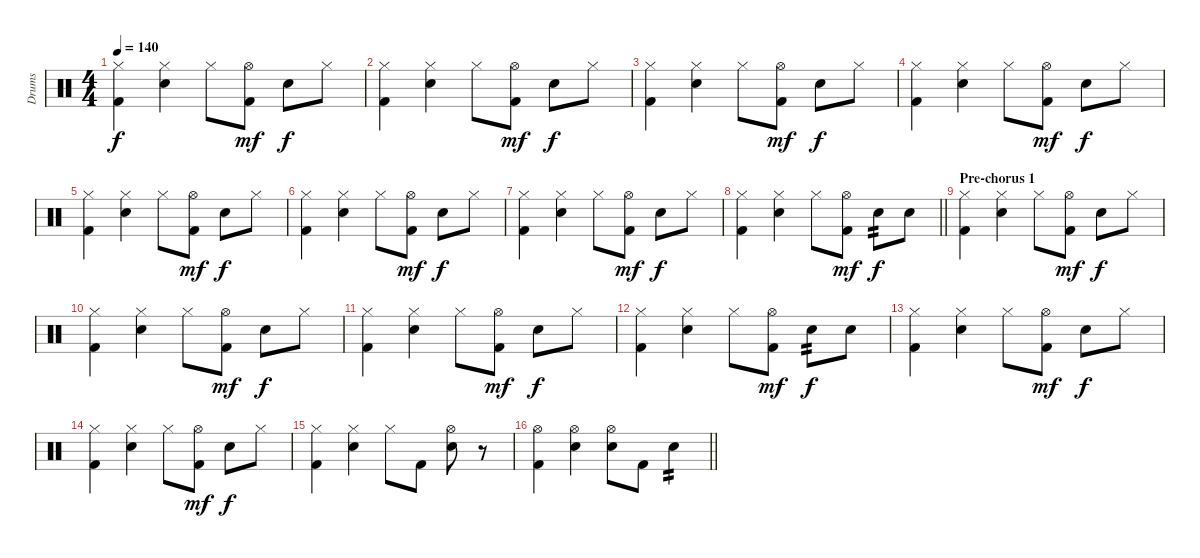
\track ("Drums" "Drums") {instrument percussion}
\staff {score}
\articulation defaults
\ts (4 4)
\tempo 140
\clef neutral
\ks c
("Hi-Hat (closed)" "Kick (hit) 2").4{dy f} ("Hi-Hat (closed)" "Snare (hit) 2").4 "Hi-Hat (closed)".8 ("Hi-Hat (open)" "Kick (hit) 2").8{dy mf} "Snare (hit) 2".8{dy f} "Hi-Hat (closed)".8 |
("Hi-Hat (closed)" "Kick (hit) 2").4 ("Hi-Hat (closed)" "Snare (hit) 2").4 "Hi-Hat (closed)".8 ("Hi-Hat (open)" "Kick (hit) 2").8{dy mf} "Snare (hit) 2".8{dy f} "Hi-Hat (closed)".8 |
("Hi-Hat (closed)" "Kick (hit) 2").4 ("Hi-Hat (closed)" "Snare (hit) 2").4 "Hi-Hat (closed)".8 ("Hi-Hat (open)" "Kick (hit) 2").8{dy mf} "Snare (hit) 2".8{dy f} "Hi-Hat (closed)".8 |
("Hi-Hat (closed)" "Kick (hit) 2").4 ("Hi-Hat (closed)" "Snare (hit) 2").4 "Hi-Hat (closed)".8 ("Hi-Hat (open)" "Kick (hit) 2").8{dy mf} "Snare (hit) 2".8{dy f} "Hi-Hat (closed)".8 |
("Hi-Hat (closed)" "Kick (hit) 2").4 ("Hi-Hat (closed)" "Snare (hit) 2").4 "Hi-Hat (closed)".8 ("Hi-Hat (open)" "Kick (hit) 2").8{dy mf} "Snare (hit) 2".8{dy f} "Hi-Hat (closed)".8 |
("Hi-Hat (closed)" "Kick (hit) 2").4 ("Hi-Hat (closed)" "Snare (hit) 2").4 "Hi-Hat (closed)".8 ("Hi-Hat (open)" "Kick (hit) 2").8{dy mf} "Snare (hit) 2".8{dy f} "Hi-Hat (closed)".8 |
("Hi-Hat (closed)" "Kick (hit) 2").4 ("Hi-Hat (closed)" "Snare (hit) 2").4 "Hi-Hat (closed)".8 ("Hi-Hat (open)" "Kick (hit) 2").8{dy mf} "Snare (hit) 2".8{dy f} "Hi-Hat (closed)".8 |
\barLineRight lightlight
("Hi-Hat (closed)" "Kick (hit) 2").4 ("Hi-Hat (closed)" "Snare (hit) 2").4 "Hi-Hat (closed)".8 ("Hi-Hat (open)" "Kick (hit) 2").8{dy mf} "Snare (hit) 2".8{tp 2 dy f} "Snare (hit) 2".8 |
\section ("" "Pre-chorus 1")
("Hi-Hat (closed)" "Kick (hit) 2").4 ("Hi-Hat (closed)" "Snare (hit) 2").4 "Hi-Hat (closed)".8 ("Hi-Hat (open)" "Kick (hit) 2").8{dy mf} "Snare (hit) 2".8{dy f} "Hi-Hat (closed)".8 |
("Hi-Hat (closed)" "Kick (hit) 2").4 ("Hi-Hat (closed)" "Snare (hit) 2").4 "Hi-Hat (closed)".8 ("Hi-Hat (open)" "Kick (hit) 2").8{dy mf} "Snare (hit) 2".8{dy f} "Hi-Hat (closed)".8 |
("Hi-Hat (closed)" "Kick (hit) 2").4 ("Hi-Hat (closed)" "Snare (hit) 2").4 "Hi-Hat (closed)".8 ("Hi-Hat (open)" "Kick (hit) 2").8{dy mf} "Snare (hit) 2".8{dy f} "Hi-Hat (closed)".8 |
("Hi-Hat (closed)" "Kick (hit) 2").4 ("Hi-Hat (closed)" "Snare (hit) 2").4 "Hi-Hat (closed)".8 ("Hi-Hat (open)" "Kick (hit) 2").8{dy mf} "Snare (hit) 2".8{tp 2 dy f} "Snare (hit) 2".8 |
("Hi-Hat (closed)" "Kick (hit) 2").4 ("Hi-Hat (closed)" "Snare (hit) 2").4 "Hi-Hat (closed)".8 ("Hi-Hat (open)" "Kick (hit) 2").8{dy mf} "Snare (hit) 2".8{dy f} "Hi-Hat (closed)".8 |
("Hi-Hat (closed)" "Kick (hit) 2").4 ("Hi-Hat (closed)" "Snare (hit) 2").4 "Hi-Hat (closed)".8 ("Hi-Hat (open)" "Kick (hit) 2").8{dy mf} "Snare (hit) 2".8{dy f} "Hi-Hat (closed)".8 |
("Hi-Hat (closed)" "Kick (hit) 2").4 ("Hi-Hat (closed)" "Snare (hit) 2").4 "Hi-Hat (closed)".8 "Kick (hit) 2".8 ("Hi-Hat (open)" "Snare (hit) 2").8 r.8 |
\barLineRight lightlight
("Hi-Hat (open)" "Kick (hit) 2").4 ("Hi-Hat (open)" "Snare (hit) 2").4 ("Hi-Hat (open)" "Snare (hit) 2").8 "Kick (hit) 2".8 "Snare (hit) 2".4{tp 2}
